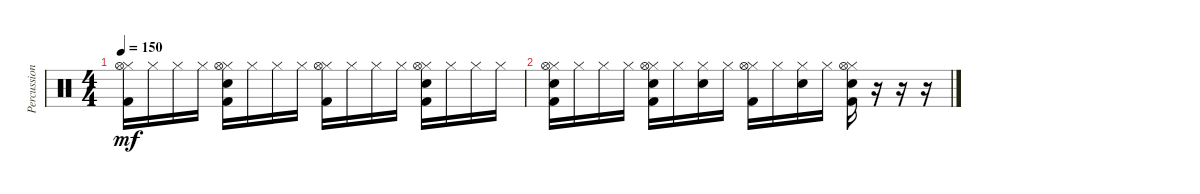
\track ("Percussion" "Percussion") {instrument percussion}
\staff {score}
\articulation defaults
\ts (4 4)
\tempo 150
\clef neutral
\ks c
("Hi-Hat (closed)" "Hi-Hat (open)" "Kick (hit) 2").16{dy mf} "Hi-Hat (closed)".16 "Hi-Hat (closed)".16 "Hi-Hat (closed)".16 ("Hi-Hat (closed)" "Hi-Hat (open)" "Electric Snare (hit)" "Kick (hit) 2").16 "Hi-Hat (closed)".16 "Hi-Hat (closed)".16 "Hi-Hat (closed)".16 ("Hi-Hat (closed)" "Hi-Hat (open)" "Kick (hit) 2").16 "Hi-Hat (closed)".16 "Hi-Hat (closed)".16 "Hi-Hat (closed)".16 ("Hi-Hat (closed)" "Hi-Hat (open)" "Electric Snare (hit)" "Kick (hit) 2").16 "Hi-Hat (closed)".16 "Hi-Hat (closed)".16 "Hi-Hat (closed)".16 |
("Hi-Hat (closed)" "Hi-Hat (open)" "Electric Snare (hit)" "Kick (hit) 2").16 "Hi-Hat (closed)".16 "Hi-Hat (closed)".16 "Hi-Hat (closed)".16 ("Hi-Hat (closed)" "Hi-Hat (open)" "Electric Snare (hit)" "Kick (hit) 2").16 "Hi-Hat (closed)".16 ("Hi-Hat (closed)" "Electric Snare (hit)").16 "Hi-Hat (closed)".16 ("Hi-Hat (closed)" "Hi-Hat (open)" "Kick (hit) 2").16 "Hi-Hat (closed)".16 ("Hi-Hat (closed)" "Electric Snare (hit)").16 "Hi-Hat (closed)".16 ("Hi-Hat (closed)" "Hi-Hat (open)" "Electric Snare (hit)" "Kick (hit) 2").16 r.16 r.16 r.16
